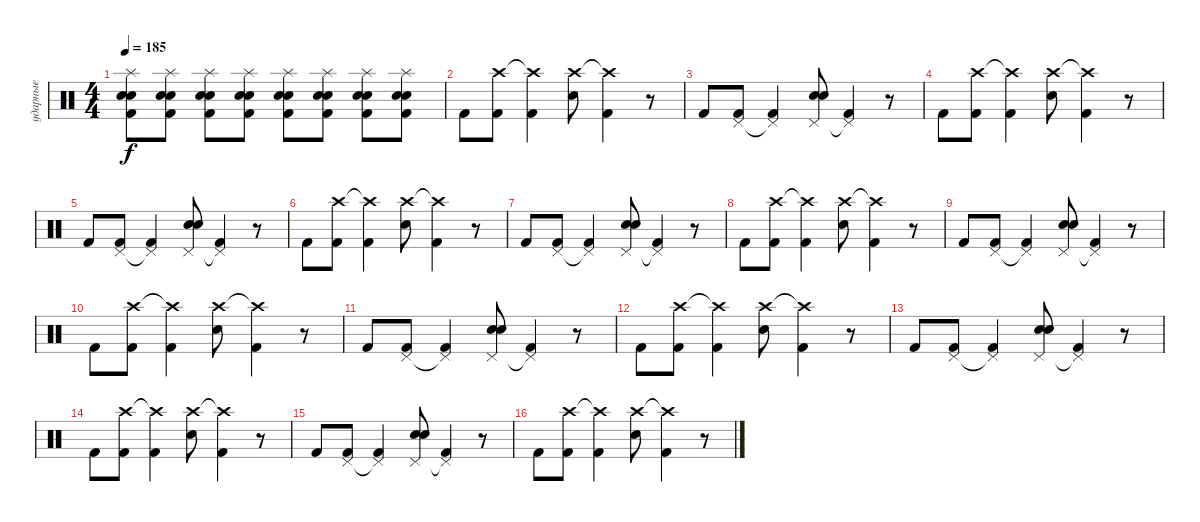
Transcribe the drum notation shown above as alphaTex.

\track ("ударные" "ударные") {instrument percussion}
\staff {score}
\articulation defaults
\ts (4 4)
\tempo 185
\clef neutral
\ks c
("Splash (hit)" "Kick (hit) 2" "Electric Snare (hit)" "Hand Clap (hit)").8{dy f} ("Splash (hit)" "Kick (hit) 2" "Electric Snare (hit)" "Hand Clap (hit)").8 ("Splash (hit)" "Kick (hit) 2" "Electric Snare (hit)" "Hand Clap (hit)").8 ("Splash (hit)" "Kick (hit) 2" "Electric Snare (hit)" "Hand Clap (hit)").8 ("Splash (hit)" "Kick (hit) 2" "Electric Snare (hit)" "Hand Clap (hit)").8 ("Splash (hit)" "Kick (hit) 2" "Electric Snare (hit)" "Hand Clap (hit)").8 ("Splash (hit)" "Kick (hit) 2" "Electric Snare (hit)" "Hand Clap (hit)").8 ("Splash (hit)" "Kick (hit) 2" "Electric Snare (hit)" "Hand Clap (hit)").8 |
"Kick (hit) 2".8 ("Crash high (hit)" "Kick (hit) 2").8 ("Crash high (hit)"{t} "Kick (hit) 2").4 ("Crash high (hit)" "Snare (hit) 2").8 ("Crash high (hit)"{t} "Kick (hit) 2").4 r.8 |
"Kick (hit) 2".8 ("Pedal Hi-Hat (hit)" "Kick (hit) 2").8 ("Pedal Hi-Hat (hit)"{t} "Kick (hit) 2").4 ("Pedal Hi-Hat (hit)" "Electric Snare (hit)" "Snare (hit) 2").8 ("Pedal Hi-Hat (hit)"{t} "Kick (hit) 2").4 r.8 |
"Kick (hit) 2".8 ("Crash high (hit)" "Kick (hit) 2").8 ("Crash high (hit)"{t} "Kick (hit) 2").4 ("Crash high (hit)" "Snare (hit) 2").8 ("Crash high (hit)"{t} "Kick (hit) 2").4 r.8 |
"Kick (hit) 2".8 ("Pedal Hi-Hat (hit)" "Kick (hit) 2").8 ("Pedal Hi-Hat (hit)"{t} "Kick (hit) 2").4 ("Pedal Hi-Hat (hit)" "Electric Snare (hit)" "Snare (hit) 2").8 ("Pedal Hi-Hat (hit)"{t} "Kick (hit) 2").4 r.8 |
"Kick (hit) 2".8 ("Crash high (hit)" "Kick (hit) 2").8 ("Crash high (hit)"{t} "Kick (hit) 2").4 ("Crash high (hit)" "Snare (hit) 2").8 ("Crash high (hit)"{t} "Kick (hit) 2").4 r.8 |
"Kick (hit) 2".8 ("Pedal Hi-Hat (hit)" "Kick (hit) 2").8 ("Pedal Hi-Hat (hit)"{t} "Kick (hit) 2").4 ("Pedal Hi-Hat (hit)" "Electric Snare (hit)" "Snare (hit) 2").8 ("Pedal Hi-Hat (hit)"{t} "Kick (hit) 2").4 r.8 |
"Kick (hit) 2".8 ("Crash high (hit)" "Kick (hit) 2").8 ("Crash high (hit)"{t} "Kick (hit) 2").4 ("Crash high (hit)" "Snare (hit) 2").8 ("Crash high (hit)"{t} "Kick (hit) 2").4 r.8 |
"Kick (hit) 2".8 ("Pedal Hi-Hat (hit)" "Kick (hit) 2").8 ("Pedal Hi-Hat (hit)"{t} "Kick (hit) 2").4 ("Pedal Hi-Hat (hit)" "Electric Snare (hit)" "Snare (hit) 2").8 ("Pedal Hi-Hat (hit)"{t} "Kick (hit) 2").4 r.8 |
"Kick (hit) 2".8 ("Crash high (hit)" "Kick (hit) 2").8 ("Crash high (hit)"{t} "Kick (hit) 2").4 ("Crash high (hit)" "Snare (hit) 2").8 ("Crash high (hit)"{t} "Kick (hit) 2").4 r.8 |
"Kick (hit) 2".8 ("Pedal Hi-Hat (hit)" "Kick (hit) 2").8 ("Pedal Hi-Hat (hit)"{t} "Kick (hit) 2").4 ("Pedal Hi-Hat (hit)" "Electric Snare (hit)" "Snare (hit) 2").8 ("Pedal Hi-Hat (hit)"{t} "Kick (hit) 2").4 r.8 |
"Kick (hit) 2".8 ("Crash high (hit)" "Kick (hit) 2").8 ("Crash high (hit)"{t} "Kick (hit) 2").4 ("Crash high (hit)" "Snare (hit) 2").8 ("Crash high (hit)"{t} "Kick (hit) 2").4 r.8 |
"Kick (hit) 2".8 ("Pedal Hi-Hat (hit)" "Kick (hit) 2").8 ("Pedal Hi-Hat (hit)"{t} "Kick (hit) 2").4 ("Pedal Hi-Hat (hit)" "Electric Snare (hit)" "Snare (hit) 2").8 ("Pedal Hi-Hat (hit)"{t} "Kick (hit) 2").4 r.8 |
"Kick (hit) 2".8 ("Crash high (hit)" "Kick (hit) 2").8 ("Crash high (hit)"{t} "Kick (hit) 2").4 ("Crash high (hit)" "Snare (hit) 2").8 ("Crash high (hit)"{t} "Kick (hit) 2").4 r.8 |
"Kick (hit) 2".8 ("Pedal Hi-Hat (hit)" "Kick (hit) 2").8 ("Pedal Hi-Hat (hit)"{t} "Kick (hit) 2").4 ("Pedal Hi-Hat (hit)" "Electric Snare (hit)" "Snare (hit) 2").8 ("Pedal Hi-Hat (hit)"{t} "Kick (hit) 2").4 r.8 |
"Kick (hit) 2".8 ("Crash high (hit)" "Kick (hit) 2").8 ("Crash high (hit)"{t} "Kick (hit) 2").4 ("Crash high (hit)" "Snare (hit) 2").8 ("Crash high (hit)"{t} "Kick (hit) 2").4 r.8
